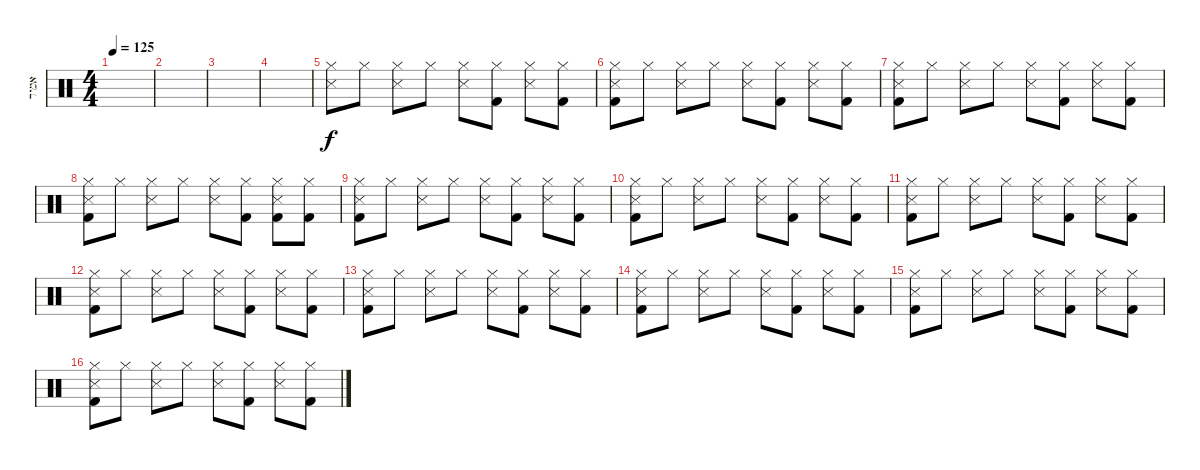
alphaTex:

\track ("אמיר" "אמיר") {instrument percussion}
\staff {score}
\articulation defaults
\ts (4 4)
\tempo 125
\clef neutral
\ks c
|
|
|
|
("Hi-Hat (closed)" "Snare (side stick) 3").8 "Hi-Hat (closed)".8 ("Hi-Hat (closed)" "Snare (side stick) 3").8 "Hi-Hat (closed)".8 ("Hi-Hat (closed)" "Snare (side stick) 3").8 ("Hi-Hat (closed)" "Kick (hit) 2").8 ("Hi-Hat (closed)" "Snare (side stick) 3").8 ("Hi-Hat (closed)" "Kick (hit) 2").8 |
("Hi-Hat (closed)" "Snare (side stick) 3" "Kick (hit) 2").8 "Hi-Hat (closed)".8 ("Hi-Hat (closed)" "Snare (side stick) 3").8 "Hi-Hat (closed)".8 ("Hi-Hat (closed)" "Snare (side stick) 3").8 ("Hi-Hat (closed)" "Kick (hit) 2").8 ("Hi-Hat (closed)" "Snare (side stick) 3").8 ("Hi-Hat (closed)" "Kick (hit) 2").8 |
("Hi-Hat (closed)" "Snare (side stick) 3" "Kick (hit) 2").8 "Hi-Hat (closed)".8 ("Hi-Hat (closed)" "Snare (side stick) 3").8 "Hi-Hat (closed)".8 ("Hi-Hat (closed)" "Snare (side stick) 3").8 ("Hi-Hat (closed)" "Kick (hit) 2").8 ("Hi-Hat (closed)" "Snare (side stick) 3").8 ("Hi-Hat (closed)" "Kick (hit) 2").8 |
("Hi-Hat (closed)" "Snare (side stick) 3" "Kick (hit) 2").8 "Hi-Hat (closed)".8 ("Hi-Hat (closed)" "Snare (side stick) 3").8 "Hi-Hat (closed)".8 ("Hi-Hat (closed)" "Snare (side stick) 3").8 ("Hi-Hat (closed)" "Kick (hit) 2").8 ("Hi-Hat (closed)" "Snare (side stick) 3" "Kick (hit) 2").8 ("Hi-Hat (closed)" "Kick (hit) 2").8 |
("Hi-Hat (closed)" "Snare (side stick) 3" "Kick (hit) 2").8 "Hi-Hat (closed)".8 ("Hi-Hat (closed)" "Snare (side stick) 3").8 "Hi-Hat (closed)".8 ("Hi-Hat (closed)" "Snare (side stick) 3").8 ("Hi-Hat (closed)" "Kick (hit) 2").8 ("Hi-Hat (closed)" "Snare (side stick) 3").8 ("Hi-Hat (closed)" "Kick (hit) 2").8 |
("Hi-Hat (closed)" "Snare (side stick) 3" "Kick (hit) 2").8 "Hi-Hat (closed)".8 ("Hi-Hat (closed)" "Snare (side stick) 3").8 "Hi-Hat (closed)".8 ("Hi-Hat (closed)" "Snare (side stick) 3").8 ("Hi-Hat (closed)" "Kick (hit) 2").8 ("Hi-Hat (closed)" "Snare (side stick) 3").8 ("Hi-Hat (closed)" "Kick (hit) 2").8 |
("Hi-Hat (closed)" "Snare (side stick) 3" "Kick (hit) 2").8 "Hi-Hat (closed)".8 ("Hi-Hat (closed)" "Snare (side stick) 3").8 "Hi-Hat (closed)".8 ("Hi-Hat (closed)" "Snare (side stick) 3").8 ("Hi-Hat (closed)" "Kick (hit) 2").8 ("Hi-Hat (closed)" "Snare (side stick) 3").8 ("Hi-Hat (closed)" "Kick (hit) 2").8 |
("Hi-Hat (closed)" "Snare (side stick) 3" "Kick (hit) 2").8 "Hi-Hat (closed)".8 ("Hi-Hat (closed)" "Snare (side stick) 3").8 "Hi-Hat (closed)".8 ("Hi-Hat (closed)" "Snare (side stick) 3").8 ("Hi-Hat (closed)" "Kick (hit) 2").8 ("Hi-Hat (closed)" "Snare (side stick) 3").8 ("Hi-Hat (closed)" "Kick (hit) 2").8 |
("Hi-Hat (closed)" "Snare (side stick) 3" "Kick (hit) 2").8 "Hi-Hat (closed)".8 ("Hi-Hat (closed)" "Snare (side stick) 3").8 "Hi-Hat (closed)".8 ("Hi-Hat (closed)" "Snare (side stick) 3").8 ("Hi-Hat (closed)" "Kick (hit) 2").8 ("Hi-Hat (closed)" "Snare (side stick) 3").8 ("Hi-Hat (closed)" "Kick (hit) 2").8 |
("Hi-Hat (closed)" "Snare (side stick) 3" "Kick (hit) 2").8 "Hi-Hat (closed)".8 ("Hi-Hat (closed)" "Snare (side stick) 3").8 "Hi-Hat (closed)".8 ("Hi-Hat (closed)" "Snare (side stick) 3").8 ("Hi-Hat (closed)" "Kick (hit) 2").8 ("Hi-Hat (closed)" "Snare (side stick) 3").8 ("Hi-Hat (closed)" "Kick (hit) 2").8 |
("Hi-Hat (closed)" "Snare (side stick) 3" "Kick (hit) 2").8 "Hi-Hat (closed)".8 ("Hi-Hat (closed)" "Snare (side stick) 3").8 "Hi-Hat (closed)".8 ("Hi-Hat (closed)" "Snare (side stick) 3").8 ("Hi-Hat (closed)" "Kick (hit) 2").8 ("Hi-Hat (closed)" "Snare (side stick) 3").8 ("Hi-Hat (closed)" "Kick (hit) 2").8 |
("Hi-Hat (closed)" "Snare (side stick) 3" "Kick (hit) 2").8 "Hi-Hat (closed)".8 ("Hi-Hat (closed)" "Snare (side stick) 3").8 "Hi-Hat (closed)".8 ("Hi-Hat (closed)" "Snare (side stick) 3").8 ("Hi-Hat (closed)" "Kick (hit) 2").8 ("Hi-Hat (closed)" "Snare (side stick) 3").8 ("Hi-Hat (closed)" "Kick (hit) 2").8
